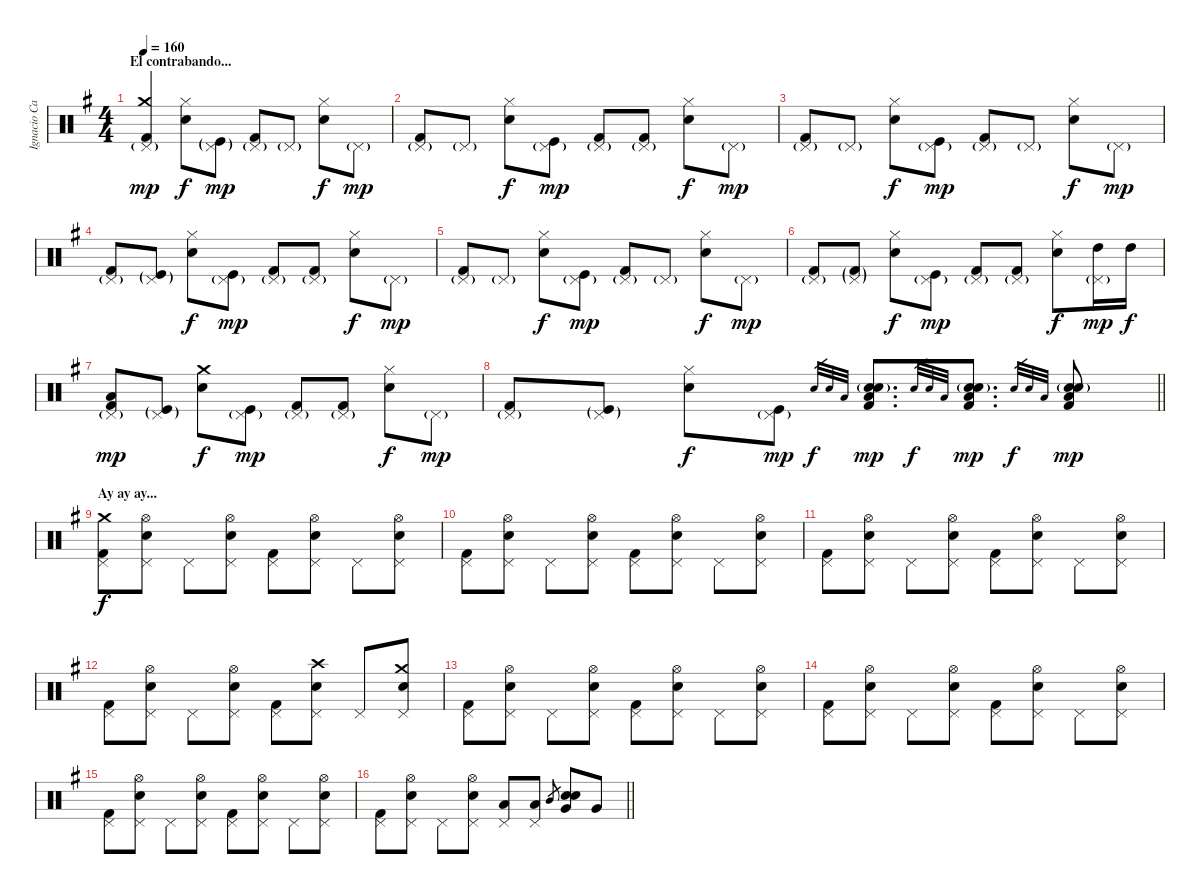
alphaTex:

\track ("Ignacio Cantera - Batería" "Ignacio Ca") {instrument percussion}
\staff {score}
\articulation defaults
\ts (4 4)
\section ("" "El contrabando...")
\tempo 160
\clef neutral
\ks eminor
("Pedal Hi-Hat (hit)"{g} "Crash medium (hit)" "Kick (hit) 2").4{dy mp} ("Hi-Hat (closed)" "Snare (hit) 2").8{dy f} ("Pedal Hi-Hat (hit)"{g} "Kick (hit)"{g}).8{dy mp} ("Pedal Hi-Hat (hit)"{g} "Kick (hit) 2").8 "Pedal Hi-Hat (hit)"{g}.8 ("Hi-Hat (closed)" "Snare (hit) 2").8{dy f} "Pedal Hi-Hat (hit)"{g}.8{dy mp} |
("Pedal Hi-Hat (hit)"{g} "Kick (hit) 2").8 "Pedal Hi-Hat (hit)"{g}.8 ("Hi-Hat (closed)" "Snare (hit) 2").8{dy f} ("Pedal Hi-Hat (hit)"{g} "Kick (hit)").8{dy mp} ("Pedal Hi-Hat (hit)"{g} "Kick (hit) 2").8 ("Pedal Hi-Hat (hit)"{g} "Kick (hit) 2").8 ("Hi-Hat (closed)" "Snare (hit) 2").8{dy f} "Pedal Hi-Hat (hit)"{g}.8{dy mp} |
("Pedal Hi-Hat (hit)"{g} "Kick (hit) 2").8 "Pedal Hi-Hat (hit)"{g}.8 ("Hi-Hat (closed)" "Snare (hit) 2").8{dy f} ("Pedal Hi-Hat (hit)"{g} "Kick (hit)").8{dy mp} ("Pedal Hi-Hat (hit)"{g} "Kick (hit) 2").8 "Pedal Hi-Hat (hit)"{g}.8 ("Hi-Hat (closed)" "Snare (hit) 2").8{dy f} "Pedal Hi-Hat (hit)"{g}.8{dy mp} |
("Pedal Hi-Hat (hit)"{g} "Kick (hit) 2").8 ("Pedal Hi-Hat (hit)"{g} "Kick (hit)"{g}).8 ("Hi-Hat (closed)" "Snare (hit) 2").8{dy f} ("Pedal Hi-Hat (hit)"{g} "Kick (hit)").8{dy mp} ("Pedal Hi-Hat (hit)"{g} "Kick (hit) 2").8 ("Pedal Hi-Hat (hit)"{g} "Kick (hit) 2").8 ("Hi-Hat (closed)" "Snare (hit) 2").8{dy f} "Pedal Hi-Hat (hit)"{g}.8{dy mp} |
("Pedal Hi-Hat (hit)"{g} "Kick (hit) 2").8 "Pedal Hi-Hat (hit)"{g}.8 ("Hi-Hat (closed)" "Snare (hit) 2").8{dy f} ("Pedal Hi-Hat (hit)"{g} "Kick (hit)").8{dy mp} ("Pedal Hi-Hat (hit)"{g} "Kick (hit) 2").8 "Pedal Hi-Hat (hit)"{g}.8 ("Hi-Hat (closed)" "Snare (hit) 2").8{dy f} "Pedal Hi-Hat (hit)"{g}.8{dy mp} |
("Pedal Hi-Hat (hit)"{g} "Kick (hit) 2").8 ("Pedal Hi-Hat (hit)"{g} "Kick (hit) 2"{g}).8 ("Hi-Hat (closed)" "Snare (hit) 2").8{dy f} ("Pedal Hi-Hat (hit)"{g} "Kick (hit)").8{dy mp} ("Pedal Hi-Hat (hit)"{g} "Kick (hit) 2").8 ("Pedal Hi-Hat (hit)"{g} "Kick (hit) 2").8 ("Hi-Hat (closed)" "Snare (hit) 2").8{dy f} ("Pedal Hi-Hat (hit)"{g} "High Tom (hit)").16{dy mp} "High Tom (hit)".16{dy f} |
("Pedal Hi-Hat (hit)"{g} "Low Tom (hit)" "Kick (hit) 2").8{dy mp} ("Pedal Hi-Hat (hit)"{g} "Kick (hit)"{g}).8 ("Crash medium (hit)" "Snare (hit) 2").8{dy f} ("Pedal Hi-Hat (hit)"{g} "Kick (hit)").8{dy mp} ("Pedal Hi-Hat (hit)"{g} "Kick (hit) 2").8 ("Pedal Hi-Hat (hit)"{g} "Kick (hit) 2").8 ("Hi-Hat (closed)" "Snare (hit) 2").8{dy f} "Pedal Hi-Hat (hit)"{g}.8{dy mp} |
\barLineRight lightlight
("Pedal Hi-Hat (hit)"{g} "Kick (hit) 2").8 ("Pedal Hi-Hat (hit)"{g} "Kick (hit)"{g}).8 ("Hi-Hat (closed)" "Snare (hit) 2").8{dy f} ("Pedal Hi-Hat (hit)"{g} "Kick (hit)").8{dy mp} "Electric Snare (hit)".32{gr dy f} "Snare (hit) 2".32{gr} "Low Tom (hit)".32{gr} ("Electric Snare (hit)"{g} "Snare (hit) 2" "Low Tom (hit)" "Kick (hit) 2").8{d dy mp} "Electric Snare (hit)".32{gr dy f} "Snare (hit) 2".32{gr} "Low Tom (hit)".32{gr} ("Electric Snare (hit)"{g} "Snare (hit) 2" "Low Tom (hit)" "Kick (hit) 2").8{d dy mp} "Electric Snare (hit)".32{gr dy f} "Snare (hit) 2".32{gr} "Low Tom (hit)".32{gr} ("Electric Snare (hit)"{g} "Snare (hit) 2" "Low Tom (hit)" "Kick (hit) 2").8{dy mp} |
\section ("" "Ay ay ay...")
("Pedal Hi-Hat (hit)" "Crash medium (hit)" "Kick (hit) 2").8{dy f} ("Pedal Hi-Hat (hit)" "Snare (hit) 2" "Hi-Hat (open)").8 "Pedal Hi-Hat (hit)".8 ("Pedal Hi-Hat (hit)" "Snare (hit) 2" "Hi-Hat (open)").8 ("Pedal Hi-Hat (hit)" "Kick (hit) 2").8 ("Pedal Hi-Hat (hit)" "Snare (hit) 2" "Hi-Hat (open)").8 "Pedal Hi-Hat (hit)".8 ("Pedal Hi-Hat (hit)" "Snare (hit) 2" "Hi-Hat (open)").8 |
("Pedal Hi-Hat (hit)" "Kick (hit) 2").8 ("Pedal Hi-Hat (hit)" "Snare (hit) 2" "Hi-Hat (open)").8 "Pedal Hi-Hat (hit)".8 ("Pedal Hi-Hat (hit)" "Snare (hit) 2" "Hi-Hat (open)").8 ("Pedal Hi-Hat (hit)" "Kick (hit) 2").8 ("Pedal Hi-Hat (hit)" "Snare (hit) 2" "Hi-Hat (open)").8 "Pedal Hi-Hat (hit)".8 ("Pedal Hi-Hat (hit)" "Snare (hit) 2" "Hi-Hat (open)").8 |
("Pedal Hi-Hat (hit)" "Kick (hit) 2").8 ("Pedal Hi-Hat (hit)" "Snare (hit) 2" "Hi-Hat (open)").8 "Pedal Hi-Hat (hit)".8 ("Pedal Hi-Hat (hit)" "Snare (hit) 2" "Hi-Hat (open)").8 ("Pedal Hi-Hat (hit)" "Kick (hit) 2").8 ("Pedal Hi-Hat (hit)" "Snare (hit) 2" "Hi-Hat (open)").8 "Pedal Hi-Hat (hit)".8 ("Pedal Hi-Hat (hit)" "Snare (hit) 2" "Hi-Hat (open)").8 |
("Pedal Hi-Hat (hit)" "Kick (hit) 2").8 ("Pedal Hi-Hat (hit)" "Snare (hit) 2" "Hi-Hat (open)").8 "Pedal Hi-Hat (hit)".8 ("Pedal Hi-Hat (hit)" "Snare (hit) 2" "Hi-Hat (open)").8 ("Pedal Hi-Hat (hit)" "Kick (hit) 2").8 ("Pedal Hi-Hat (hit)" "Snare (hit) 2" "Crash high (hit)").8 "Pedal Hi-Hat (hit)".8 ("Pedal Hi-Hat (hit)" "Snare (hit) 2" "Crash medium (hit)").8 |
("Pedal Hi-Hat (hit)" "Kick (hit) 2").8 ("Pedal Hi-Hat (hit)" "Snare (hit) 2" "Hi-Hat (open)").8 "Pedal Hi-Hat (hit)".8 ("Pedal Hi-Hat (hit)" "Snare (hit) 2" "Hi-Hat (open)").8 ("Pedal Hi-Hat (hit)" "Kick (hit) 2").8 ("Pedal Hi-Hat (hit)" "Snare (hit) 2" "Hi-Hat (open)").8 "Pedal Hi-Hat (hit)".8 ("Pedal Hi-Hat (hit)" "Snare (hit) 2" "Hi-Hat (open)").8 |
("Pedal Hi-Hat (hit)" "Kick (hit) 2").8 ("Pedal Hi-Hat (hit)" "Snare (hit) 2" "Hi-Hat (open)").8 "Pedal Hi-Hat (hit)".8 ("Pedal Hi-Hat (hit)" "Snare (hit) 2" "Hi-Hat (open)").8 ("Pedal Hi-Hat (hit)" "Kick (hit) 2").8 ("Pedal Hi-Hat (hit)" "Snare (hit) 2" "Hi-Hat (open)").8 "Pedal Hi-Hat (hit)".8 ("Pedal Hi-Hat (hit)" "Snare (hit) 2" "Hi-Hat (open)").8 |
("Pedal Hi-Hat (hit)" "Kick (hit) 2").8 ("Pedal Hi-Hat (hit)" "Snare (hit) 2" "Hi-Hat (open)").8 "Pedal Hi-Hat (hit)".8 ("Pedal Hi-Hat (hit)" "Snare (hit) 2" "Hi-Hat (open)").8 ("Pedal Hi-Hat (hit)" "Kick (hit) 2").8 ("Pedal Hi-Hat (hit)" "Snare (hit) 2" "Hi-Hat (open)").8 "Pedal Hi-Hat (hit)".8 ("Pedal Hi-Hat (hit)" "Snare (hit) 2" "Hi-Hat (open)").8 |
\barLineRight lightlight
("Pedal Hi-Hat (hit)" "Kick (hit) 2").8 ("Pedal Hi-Hat (hit)" "Snare (hit) 2" "Hi-Hat (open)").8 "Pedal Hi-Hat (hit)".8 ("Pedal Hi-Hat (hit)" "Snare (hit) 2" "Hi-Hat (open)").8 ("Pedal Hi-Hat (hit)" "Low Tom (hit)").8 ("Pedal Hi-Hat (hit)" "Low Tom (hit)").8 "Mid Tom (hit)".8{gr} ("Electric Snare (hit)" "Very Low Tom (hit)" "Snare (hit) 2").8 "Very Low Tom (hit)".8
